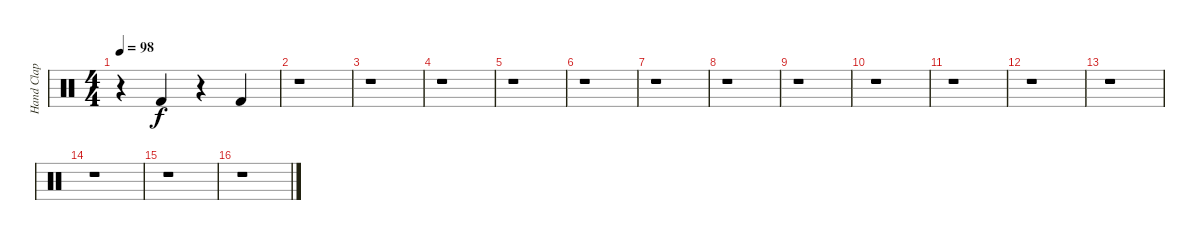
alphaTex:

\track ("Hand Clap" "Hand Clap") {instrument percussion}
\staff {score}
\articulation defaults
\ts (4 4)
\tempo 98
\clef neutral
\ks c
r.4{dy f} "Kick (hit) 2".4 r.4 "Kick (hit) 2".4 |
r.1 |
r.1 |
r.1 |
r.1 |
r.1 |
r.1 |
r.1 |
r.1 |
r.1 |
r.1 |
r.1 |
r.1 |
r.1 |
r.1 |
r.1
